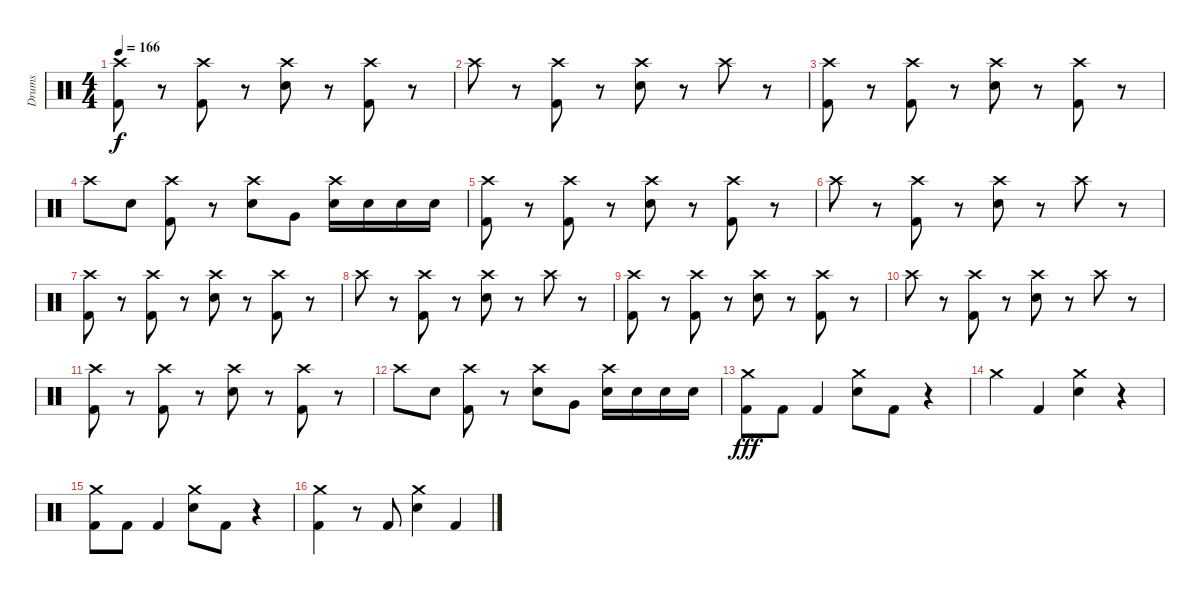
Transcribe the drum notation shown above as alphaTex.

\track ("Drums" "Drums") {instrument percussion}
\staff {score}
\articulation defaults
\ts (4 4)
\tempo 166
\clef neutral
\ks c
("Crash high (hit)" "Kick (hit) 2").8{dy f} r.8 ("Crash high (hit)" "Kick (hit) 2").8 r.8 ("Crash high (hit)" "Snare (hit) 2").8 r.8 ("Crash high (hit)" "Kick (hit) 2").8 r.8 |
"Crash high (hit)".8 r.8 ("Crash high (hit)" "Kick (hit) 2").8 r.8 ("Crash high (hit)" "Snare (hit) 2").8 r.8 "Crash high (hit)".8 r.8 |
("Crash high (hit)" "Kick (hit) 2").8 r.8 ("Crash high (hit)" "Kick (hit) 2").8 r.8 ("Crash high (hit)" "Snare (hit) 2").8 r.8 ("Crash high (hit)" "Kick (hit) 2").8 r.8 |
"Crash high (hit)".8 "Snare (hit) 2".8 ("Crash high (hit)" "Kick (hit) 2").8 r.8 ("Crash high (hit)" "Snare (hit) 2").8 "Very Low Tom (hit)".8 ("Crash high (hit)" "Snare (hit) 2").16 "Snare (hit) 2".16 "Snare (hit) 2".16 "Snare (hit) 2".16 |
("Crash high (hit)" "Kick (hit) 2").8 r.8 ("Crash high (hit)" "Kick (hit) 2").8 r.8 ("Crash high (hit)" "Snare (hit) 2").8 r.8 ("Crash high (hit)" "Kick (hit) 2").8 r.8 |
"Crash high (hit)".8 r.8 ("Crash high (hit)" "Kick (hit) 2").8 r.8 ("Crash high (hit)" "Snare (hit) 2").8 r.8 "Crash high (hit)".8 r.8 |
("Crash high (hit)" "Kick (hit) 2").8 r.8 ("Crash high (hit)" "Kick (hit) 2").8 r.8 ("Crash high (hit)" "Snare (hit) 2").8 r.8 ("Crash high (hit)" "Kick (hit) 2").8 r.8 |
"Crash high (hit)".8 r.8 ("Crash high (hit)" "Kick (hit) 2").8 r.8 ("Crash high (hit)" "Snare (hit) 2").8 r.8 "Crash high (hit)".8 r.8 |
("Crash high (hit)" "Kick (hit) 2").8 r.8 ("Crash high (hit)" "Kick (hit) 2").8 r.8 ("Crash high (hit)" "Snare (hit) 2").8 r.8 ("Crash high (hit)" "Kick (hit) 2").8 r.8 |
"Crash high (hit)".8 r.8 ("Crash high (hit)" "Kick (hit) 2").8 r.8 ("Crash high (hit)" "Snare (hit) 2").8 r.8 "Crash high (hit)".8 r.8 |
("Crash high (hit)" "Kick (hit) 2").8 r.8 ("Crash high (hit)" "Kick (hit) 2").8 r.8 ("Crash high (hit)" "Snare (hit) 2").8 r.8 ("Crash high (hit)" "Kick (hit) 2").8 r.8 |
"Crash high (hit)".8 "Snare (hit) 2".8 ("Crash high (hit)" "Kick (hit) 2").8 r.8 ("Crash high (hit)" "Snare (hit) 2").8 "Very Low Tom (hit)".8 ("Crash high (hit)" "Snare (hit) 2").16 "Snare (hit) 2".16 "Snare (hit) 2".16 "Snare (hit) 2".16 |
("Crash medium (hit)" "Kick (hit) 2").8{dy fff} "Kick (hit) 2".8 "Kick (hit) 2".4 ("Crash medium (hit)" "Snare (hit) 2").8 "Kick (hit) 2".8 r.4 |
"Crash medium (hit)".4 "Kick (hit) 2".4 ("Crash medium (hit)" "Snare (hit) 2").4 r.4 |
("Crash medium (hit)" "Kick (hit) 2").8 "Kick (hit) 2".8 "Kick (hit) 2".4 ("Crash medium (hit)" "Snare (hit) 2").8 "Kick (hit) 2".8 r.4 |
("Crash medium (hit)" "Kick (hit) 2").4 r.8 "Kick (hit) 2".8 ("Crash medium (hit)" "Snare (hit) 2").4 "Kick (hit) 2".4
